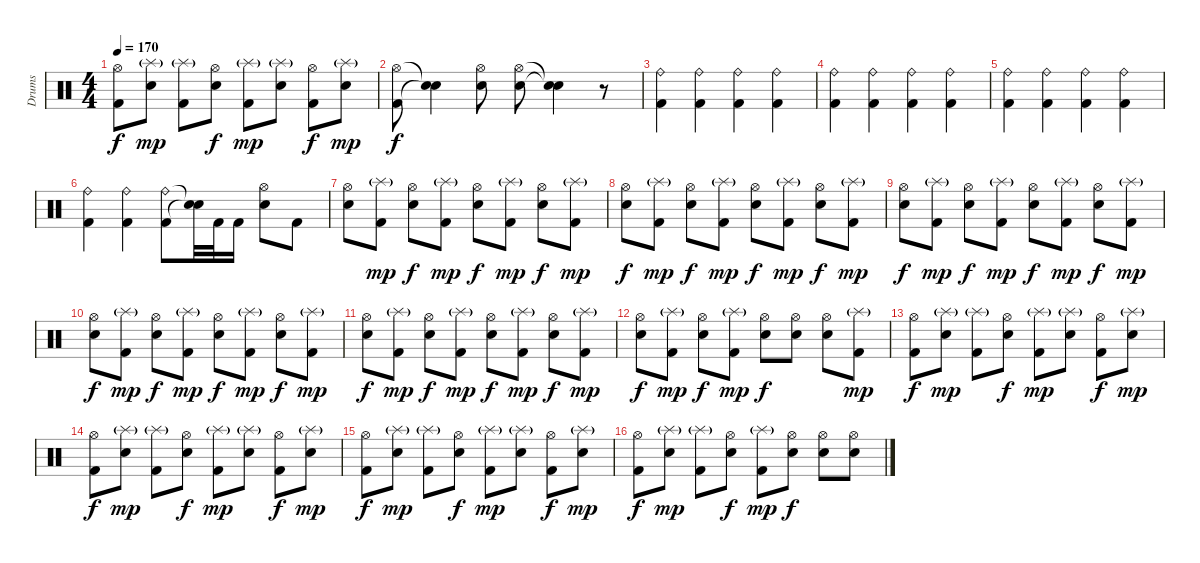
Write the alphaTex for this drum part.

\track ("Drums" "Drums") {instrument percussion}
\staff {score}
\articulation defaults
\ts (4 4)
\tempo 170
\clef neutral
\ks c
("Hi-Hat (open)" "Kick (hit) 2").8{dy f} ("Splash (hit)"{g} "Snare (hit) 2").8{dy mp} ("Splash (hit)"{g} "Kick (hit) 2").8 ("Hi-Hat (open)" "Snare (hit) 2").8{dy f} ("Splash (hit)"{g} "Kick (hit) 2").8{dy mp} ("Splash (hit)"{g} "Snare (hit) 2").8 ("Hi-Hat (open)" "Kick (hit) 2").8{dy f} ("Splash (hit)"{g} "Snare (hit) 2").8{dy mp} |
("Hi-Hat (open)" "Kick (hit) 2").8{dy f} ("Snare (hit)"{t} "Snare (hit)"{t}).4 ("Hi-Hat (open)" "Snare (hit) 2").8 ("Hi-Hat (open)" "Snare (hit) 2").8 ("Snare (hit)"{t} "Snare (hit)"{t}).4 r.8 |
("Ride (bell)" "Kick (hit) 2").4 ("Ride (bell)" "Kick (hit) 2").4 ("Ride (bell)" "Kick (hit) 2").4 ("Ride (bell)" "Kick (hit) 2").4 |
("Ride (bell)" "Kick (hit) 2").4 ("Ride (bell)" "Kick (hit) 2").4 ("Ride (bell)" "Kick (hit) 2").4 ("Ride (bell)" "Kick (hit) 2").4 |
("Ride (bell)" "Kick (hit) 2").4 ("Ride (bell)" "Kick (hit) 2").4 ("Ride (bell)" "Kick (hit) 2").4 ("Ride (bell)" "Kick (hit) 2").4 |
("Ride (bell)" "Kick (hit) 2").4 ("Ride (bell)" "Kick (hit) 2").4 ("Ride (bell)" "Kick (hit) 2").8 ("Snare (hit)"{t} "Snare (hit)"{t}).32 "Kick (hit) 2".32 "Kick (hit) 2".16 ("Hi-Hat (open)" "Snare (hit) 2").8 "Kick (hit) 2".8 |
("Hi-Hat (open)" "Snare (hit) 2").8 ("Splash (hit)"{g} "Kick (hit) 2").8{dy mp} ("Hi-Hat (open)" "Snare (hit) 2").8{dy f} ("Splash (hit)"{g} "Kick (hit) 2").8{dy mp} ("Hi-Hat (open)" "Snare (hit) 2").8{dy f} ("Splash (hit)"{g} "Kick (hit) 2").8{dy mp} ("Hi-Hat (open)" "Snare (hit) 2").8{dy f} ("Splash (hit)"{g} "Kick (hit) 2").8{dy mp} |
("Hi-Hat (open)" "Snare (hit) 2").8{dy f} ("Splash (hit)"{g} "Kick (hit) 2").8{dy mp} ("Hi-Hat (open)" "Snare (hit) 2").8{dy f} ("Splash (hit)"{g} "Kick (hit) 2").8{dy mp} ("Hi-Hat (open)" "Snare (hit) 2").8{dy f} ("Splash (hit)"{g} "Kick (hit) 2").8{dy mp} ("Hi-Hat (open)" "Snare (hit) 2").8{dy f} ("Splash (hit)"{g} "Kick (hit) 2").8{dy mp} |
("Hi-Hat (open)" "Snare (hit) 2").8{dy f} ("Splash (hit)"{g} "Kick (hit) 2").8{dy mp} ("Hi-Hat (open)" "Snare (hit) 2").8{dy f} ("Splash (hit)"{g} "Kick (hit) 2").8{dy mp} ("Hi-Hat (open)" "Snare (hit) 2").8{dy f} ("Splash (hit)"{g} "Kick (hit) 2").8{dy mp} ("Hi-Hat (open)" "Snare (hit) 2").8{dy f} ("Splash (hit)"{g} "Kick (hit) 2").8{dy mp} |
("Hi-Hat (open)" "Snare (hit) 2").8{dy f} ("Splash (hit)"{g} "Kick (hit) 2").8{dy mp} ("Hi-Hat (open)" "Snare (hit) 2").8{dy f} ("Splash (hit)"{g} "Kick (hit) 2").8{dy mp} ("Hi-Hat (open)" "Snare (hit) 2").8{dy f} ("Splash (hit)"{g} "Kick (hit) 2").8{dy mp} ("Hi-Hat (open)" "Snare (hit) 2").8{dy f} ("Splash (hit)"{g} "Kick (hit) 2").8{dy mp} |
("Hi-Hat (open)" "Snare (hit) 2").8{dy f} ("Splash (hit)"{g} "Kick (hit) 2").8{dy mp} ("Hi-Hat (open)" "Snare (hit) 2").8{dy f} ("Splash (hit)"{g} "Kick (hit) 2").8{dy mp} ("Hi-Hat (open)" "Snare (hit) 2").8{dy f} ("Splash (hit)"{g} "Kick (hit) 2").8{dy mp} ("Hi-Hat (open)" "Snare (hit) 2").8{dy f} ("Splash (hit)"{g} "Kick (hit) 2").8{dy mp} |
("Hi-Hat (open)" "Snare (hit) 2").8{dy f} ("Splash (hit)"{g} "Kick (hit) 2").8{dy mp} ("Hi-Hat (open)" "Snare (hit) 2").8{dy f} ("Splash (hit)"{g} "Kick (hit) 2").8{dy mp} ("Hi-Hat (open)" "Snare (hit) 2").8{dy f} ("Hi-Hat (open)" "Snare (hit) 2").8 ("Hi-Hat (open)" "Snare (hit) 2").8 ("Splash (hit)"{g} "Kick (hit) 2").8{dy mp} |
("Hi-Hat (open)" "Kick (hit) 2").8{dy f} ("Splash (hit)"{g} "Snare (hit) 2").8{dy mp} ("Splash (hit)"{g} "Kick (hit) 2").8 ("Hi-Hat (open)" "Snare (hit) 2").8{dy f} ("Splash (hit)"{g} "Kick (hit) 2").8{dy mp} ("Splash (hit)"{g} "Snare (hit) 2").8 ("Hi-Hat (open)" "Kick (hit) 2").8{dy f} ("Splash (hit)"{g} "Snare (hit) 2").8{dy mp} |
("Hi-Hat (open)" "Kick (hit) 2").8{dy f} ("Splash (hit)"{g} "Snare (hit) 2").8{dy mp} ("Splash (hit)"{g} "Kick (hit) 2").8 ("Hi-Hat (open)" "Snare (hit) 2").8{dy f} ("Splash (hit)"{g} "Kick (hit) 2").8{dy mp} ("Splash (hit)"{g} "Snare (hit) 2").8 ("Hi-Hat (open)" "Kick (hit) 2").8{dy f} ("Splash (hit)"{g} "Snare (hit) 2").8{dy mp} |
("Hi-Hat (open)" "Kick (hit) 2").8{dy f} ("Splash (hit)"{g} "Snare (hit) 2").8{dy mp} ("Splash (hit)"{g} "Kick (hit) 2").8 ("Hi-Hat (open)" "Snare (hit) 2").8{dy f} ("Splash (hit)"{g} "Kick (hit) 2").8{dy mp} ("Splash (hit)"{g} "Snare (hit) 2").8 ("Hi-Hat (open)" "Kick (hit) 2").8{dy f} ("Splash (hit)"{g} "Snare (hit) 2").8{dy mp} |
("Hi-Hat (open)" "Kick (hit) 2").8{dy f} ("Splash (hit)"{g} "Snare (hit) 2").8{dy mp} ("Splash (hit)"{g} "Kick (hit) 2").8 ("Hi-Hat (open)" "Snare (hit) 2").8{dy f} ("Splash (hit)"{g} "Kick (hit) 2").8{dy mp} ("Hi-Hat (open)" "Snare (hit) 2").8{dy f} ("Hi-Hat (open)" "Snare (hit) 2").8 ("Hi-Hat (open)" "Snare (hit) 2").8
